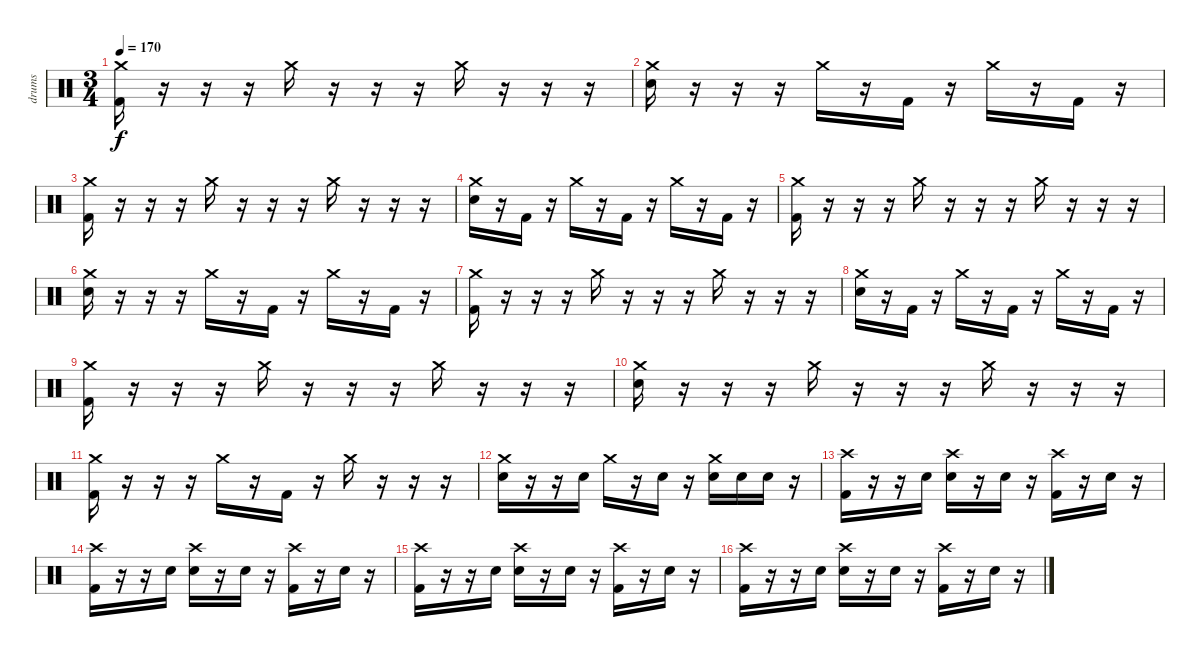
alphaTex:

\track ("drums" "drums") {instrument percussion}
\staff {score}
\articulation defaults
\ts (3 4)
\tempo 170
\clef neutral
\ks c
("Kick (hit) 2" "Crash medium (hit)").16{dy f} r.16 r.16 r.16 "Crash medium (hit)".16 r.16 r.16 r.16 "Crash medium (hit)".16 r.16 r.16 r.16 |
("Snare (hit) 2" "Crash medium (hit)").16 r.16 r.16 r.16 "Crash medium (hit)".16 r.16 "Kick (hit) 2".16 r.16 "Crash medium (hit)".16 r.16 "Kick (hit) 2".16 r.16 |
("Kick (hit) 2" "Crash medium (hit)").16 r.16 r.16 r.16 "Crash medium (hit)".16 r.16 r.16 r.16 "Crash medium (hit)".16 r.16 r.16 r.16 |
("Snare (hit) 2" "Crash medium (hit)").16 r.16 "Kick (hit) 2".16 r.16 "Crash medium (hit)".16 r.16 "Kick (hit) 2".16 r.16 "Crash medium (hit)".16 r.16 "Kick (hit) 2".16 r.16 |
("Kick (hit) 2" "Crash medium (hit)").16 r.16 r.16 r.16 "Crash medium (hit)".16 r.16 r.16 r.16 "Crash medium (hit)".16 r.16 r.16 r.16 |
("Snare (hit) 2" "Crash medium (hit)").16 r.16 r.16 r.16 "Crash medium (hit)".16 r.16 "Kick (hit) 2".16 r.16 "Crash medium (hit)".16 r.16 "Kick (hit) 2".16 r.16 |
("Kick (hit) 2" "Crash medium (hit)").16 r.16 r.16 r.16 "Crash medium (hit)".16 r.16 r.16 r.16 "Crash medium (hit)".16 r.16 r.16 r.16 |
("Snare (hit) 2" "Crash medium (hit)").16 r.16 "Kick (hit) 2".16 r.16 "Crash medium (hit)".16 r.16 "Kick (hit) 2".16 r.16 "Crash medium (hit)".16 r.16 "Kick (hit) 2".16 r.16 |
("Kick (hit) 2" "Crash medium (hit)").16 r.16 r.16 r.16 "Crash medium (hit)".16 r.16 r.16 r.16 "Crash medium (hit)".16 r.16 r.16 r.16 |
("Snare (hit) 2" "Crash medium (hit)").16 r.16 r.16 r.16 "Crash medium (hit)".16 r.16 r.16 r.16 "Crash medium (hit)".16 r.16 r.16 r.16 |
("Kick (hit) 2" "Crash medium (hit)").16 r.16 r.16 r.16 "Crash medium (hit)".16 r.16 "Kick (hit) 2".16 r.16 "Crash medium (hit)".16 r.16 r.16 r.16 |
("Crash medium (hit)" "Snare (hit) 2").16 r.16 r.16 "Snare (hit) 2".16 "Crash medium (hit)".16 r.16 "Snare (hit) 2".16 r.16 ("Crash medium (hit)" "Snare (hit) 2").16 "Snare (hit) 2".16 "Snare (hit) 2".16 r.16 |
("Kick (hit) 2" "Crash high (hit)").16 r.16 r.16 "Snare (hit) 2".16 ("Crash high (hit)" "Snare (hit) 2").16 r.16 "Snare (hit) 2".16 r.16 ("Crash high (hit)" "Kick (hit) 2").16 r.16 "Snare (hit) 2".16 r.16 |
("Kick (hit) 2" "Crash high (hit)").16 r.16 r.16 "Snare (hit) 2".16 ("Crash high (hit)" "Snare (hit) 2").16 r.16 "Snare (hit) 2".16 r.16 ("Crash high (hit)" "Kick (hit) 2").16 r.16 "Snare (hit) 2".16 r.16 |
("Kick (hit) 2" "Crash high (hit)").16 r.16 r.16 "Snare (hit) 2".16 ("Crash high (hit)" "Snare (hit) 2").16 r.16 "Snare (hit) 2".16 r.16 ("Crash high (hit)" "Kick (hit) 2").16 r.16 "Snare (hit) 2".16 r.16 |
("Kick (hit) 2" "Crash high (hit)").16 r.16 r.16 "Snare (hit) 2".16 ("Crash high (hit)" "Snare (hit) 2").16 r.16 "Snare (hit) 2".16 r.16 ("Crash high (hit)" "Kick (hit) 2").16 r.16 "Snare (hit) 2".16 r.16
